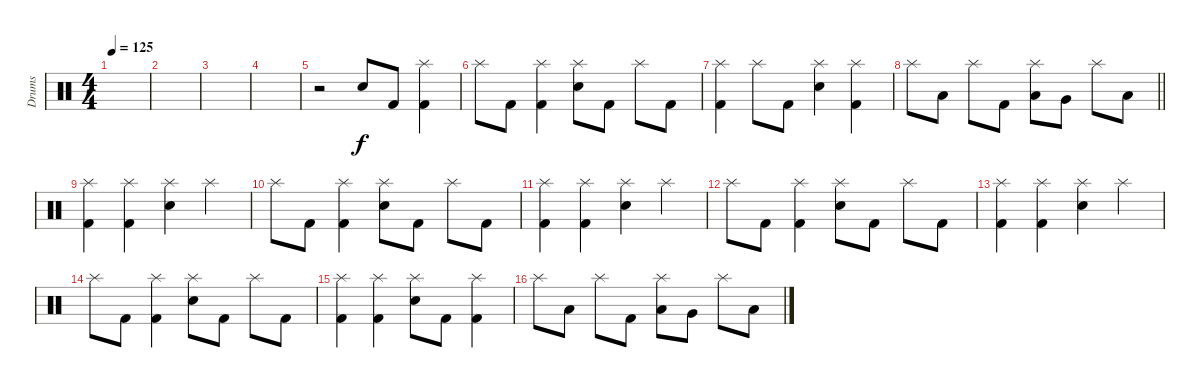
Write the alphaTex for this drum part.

\track ("Drums" "Drums") {instrument percussion}
\staff {score}
\articulation defaults
\ts (4 4)
\tempo 125
\clef neutral
\ks c
|
|
|
|
r.2 "Electric Snare (hit)".8 "Kick (hit) 2".8 ("Splash (hit)" "Kick (hit) 2").4 |
"Splash (hit)".8 "Kick (hit) 2".8 ("Splash (hit)" "Kick (hit) 2").4 ("Splash (hit)" "Electric Snare (hit)").8 "Kick (hit) 2".8 "Splash (hit)".8 "Kick (hit) 2".8 |
("Splash (hit)" "Kick (hit) 2").4 "Splash (hit)".8 "Kick (hit) 2".8 ("Splash (hit)" "Electric Snare (hit)").4 ("Splash (hit)" "Kick (hit) 2").4 |
\barLineRight lightlight "Splash (hit)".8 "Low Tom (hit)".8 "Splash (hit)".8 "Kick (hit) 2".8
("Splash (hit)" "Low Tom (hit)").8 "Very Low Tom (hit)".8 "Splash (hit)".8 "Low Floor Tom (hit)".8 |
("Splash (hit)" "Kick (hit) 2").4 ("Splash (hit)" "Kick (hit) 2").4 ("Splash (hit)" "Electric Snare (hit)").4 "Splash (hit)".4 |
"Splash (hit)".8 "Kick (hit) 2".8 ("Splash (hit)" "Kick (hit) 2").4 ("Splash (hit)" "Electric Snare (hit)").8 "Kick (hit) 2".8 "Splash (hit)".8 "Kick (hit) 2".8 |
("Splash (hit)" "Kick (hit) 2").4 ("Splash (hit)" "Kick (hit) 2").4 ("Splash (hit)" "Electric Snare (hit)").4 "Splash (hit)".4 |
"Splash (hit)".8 "Kick (hit) 2".8 ("Splash (hit)" "Kick (hit) 2").4 ("Splash (hit)" "Electric Snare (hit)").8 "Kick (hit) 2".8 "Splash (hit)".8 "Kick (hit) 2".8 |
("Splash (hit)" "Kick (hit) 2").4 ("Splash (hit)" "Kick (hit) 2").4 ("Splash (hit)" "Electric Snare (hit)").4 "Splash (hit)".4 |
"Splash (hit)".8 "Kick (hit) 2".8 ("Splash (hit)" "Kick (hit) 2").4 ("Splash (hit)" "Electric Snare (hit)").8 "Kick (hit) 2".8 "Splash (hit)".8 "Kick (hit) 2".8 |
("Splash (hit)" "Kick (hit) 2").4 ("Splash (hit)" "Kick (hit) 2").4 ("Splash (hit)" "Electric Snare (hit)").8 "Kick (hit) 2".8 ("Splash (hit)" "Kick (hit) 2").4 |
"Splash (hit)".8 "Low Tom (hit)".8 "Splash (hit)".8 "Kick (hit) 2".8 ("Splash (hit)" "Low Tom (hit)").8 "Very Low Tom (hit)".8 "Splash (hit)".8 "Low Floor Tom (hit)".8
